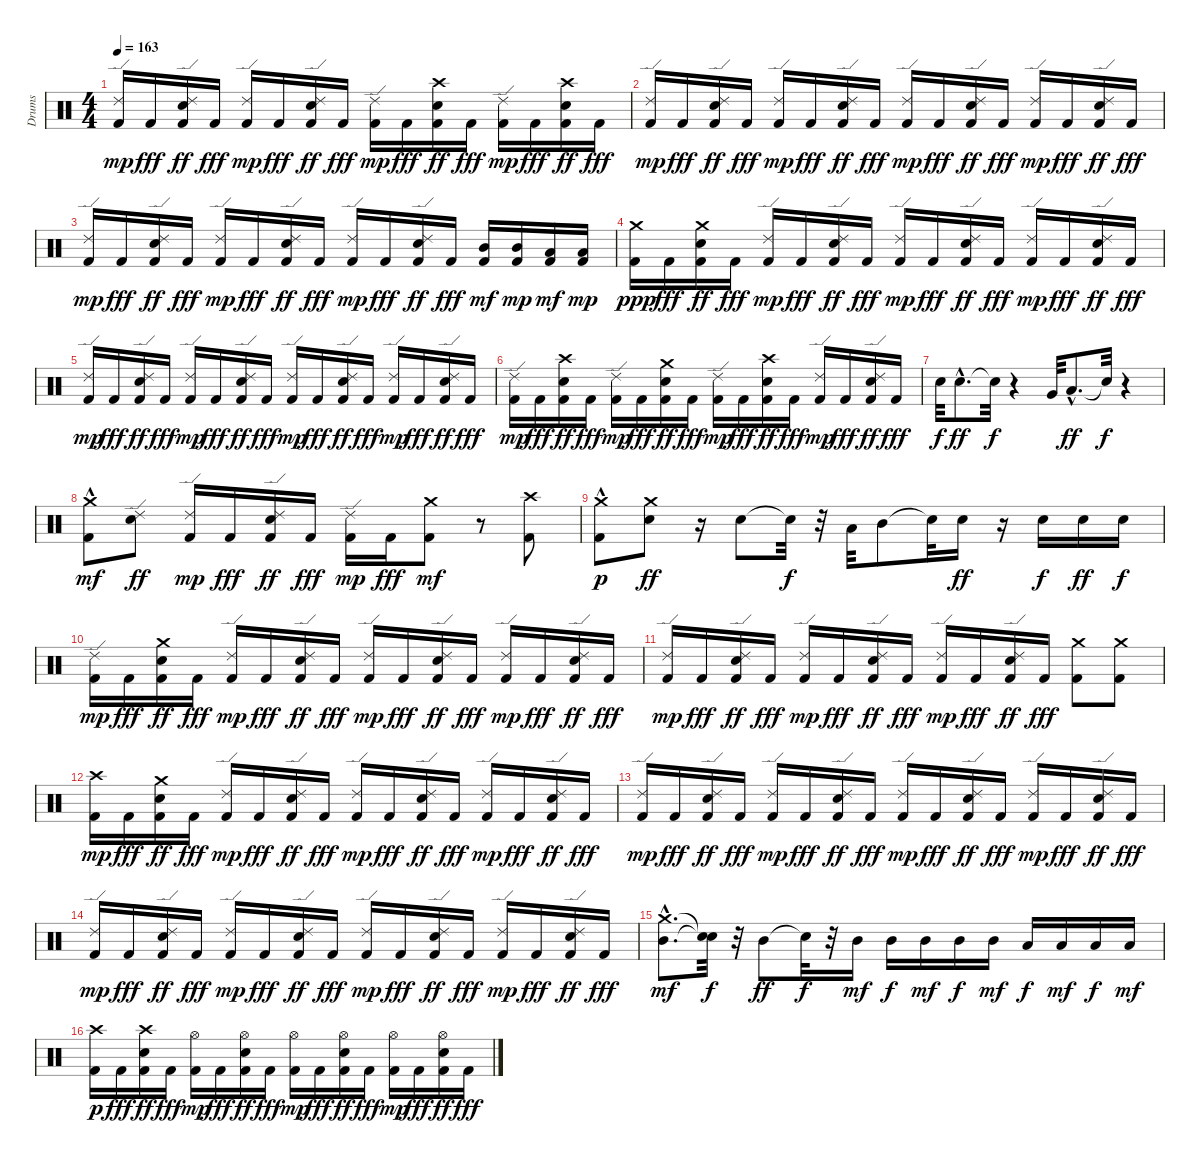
\track ("Drums" "Drums") {instrument percussion}
\staff {score}
\articulation defaults
\ts (4 4)
\tempo 163
\clef neutral
\ks c
("Kick (hit) 2" "Ride (edge) 2").16{dy mp} "Kick (hit) 2".16{dy fff} ("Kick (hit) 2" "Ride (edge) 2" "Snare (hit) 2").16{dy ff} "Kick (hit) 2".16{dy fff} ("Kick (hit) 2" "Ride (edge) 2").16{dy mp} "Kick (hit) 2".16{dy fff} ("Kick (hit) 2" "Ride (edge) 2" "Snare (hit) 2").16{dy ff} "Kick (hit) 2".16{dy fff} ("Kick (hit) 2" "Ride (edge) 2").16{dy mp} "Kick (hit) 2".16{dy fff} ("Kick (hit) 2" "Crash high (hit)" "Snare (hit) 2").16{dy ff} "Kick (hit) 2".16{dy fff} ("Kick (hit) 2" "Ride (edge) 2").16{dy mp} "Kick (hit) 2".16{dy fff} ("Kick (hit) 2" "Crash high (hit)" "Snare (hit) 2").16{dy ff} "Kick (hit) 2".16{dy fff} |
("Kick (hit) 2" "Ride (edge) 2").16{dy mp} "Kick (hit) 2".16{dy fff} ("Kick (hit) 2" "Ride (edge) 2" "Snare (hit) 2").16{dy ff} "Kick (hit) 2".16{dy fff} ("Kick (hit) 2" "Ride (edge) 2").16{dy mp} "Kick (hit) 2".16{dy fff} ("Kick (hit) 2" "Ride (edge) 2" "Snare (hit) 2").16{dy ff} "Kick (hit) 2".16{dy fff} ("Kick (hit) 2" "Ride (edge) 2").16{dy mp} "Kick (hit) 2".16{dy fff} ("Kick (hit) 2" "Ride (edge) 2" "Snare (hit) 2").16{dy ff} "Kick (hit) 2".16{dy fff} ("Kick (hit) 2" "Ride (edge) 2").16{dy mp} "Kick (hit) 2".16{dy fff} ("Kick (hit) 2" "Ride (edge) 2" "Snare (hit) 2").16{dy ff} "Kick (hit) 2".16{dy fff} |
("Kick (hit) 2" "Ride (edge) 2").16{dy mp} "Kick (hit) 2".16{dy fff} ("Kick (hit) 2" "Ride (edge) 2" "Snare (hit) 2").16{dy ff} "Kick (hit) 2".16{dy fff} ("Kick (hit) 2" "Ride (edge) 2").16{dy mp} "Kick (hit) 2".16{dy fff} ("Kick (hit) 2" "Ride (edge) 2" "Snare (hit) 2").16{dy ff} "Kick (hit) 2".16{dy fff} ("Kick (hit) 2" "Ride (edge) 2").16{dy mp} "Kick (hit) 2".16{dy fff} ("Kick (hit) 2" "Ride (edge) 2" "Snare (hit) 2").16{dy ff} "Kick (hit) 2".16{dy fff} ("Kick (hit) 2" "Mid Tom (hit)").16{dy mf} ("Kick (hit) 2" "Mid Tom (hit)").16{dy mp} ("Kick (hit) 2" "Low Tom (hit)").16{dy mf} ("Kick (hit) 2" "Low Tom (hit)").16{dy mp} |
("Kick (hit) 2" "Crash medium (hit)").16{dy ppp} "Kick (hit) 2".16{dy fff} ("Kick (hit) 2" "Crash medium (hit)" "Snare (hit) 2").16{dy ff} "Kick (hit) 2".16{dy fff} ("Kick (hit) 2" "Ride (edge) 2").16{dy mp} "Kick (hit) 2".16{dy fff} ("Kick (hit) 2" "Ride (edge) 2" "Snare (hit) 2").16{dy ff} "Kick (hit) 2".16{dy fff} ("Kick (hit) 2" "Ride (edge) 2").16{dy mp} "Kick (hit) 2".16{dy fff} ("Kick (hit) 2" "Ride (edge) 2" "Snare (hit) 2").16{dy ff} "Kick (hit) 2".16{dy fff} ("Kick (hit) 2" "Ride (edge) 2").16{dy mp} "Kick (hit) 2".16{dy fff} ("Kick (hit) 2" "Ride (edge) 2" "Snare (hit) 2").16{dy ff} "Kick (hit) 2".16{dy fff} |
("Kick (hit) 2" "Ride (edge) 2").16{dy mp} "Kick (hit) 2".16{dy fff} ("Kick (hit) 2" "Ride (edge) 2" "Snare (hit) 2").16{dy ff} "Kick (hit) 2".16{dy fff} ("Kick (hit) 2" "Ride (edge) 2").16{dy mp} "Kick (hit) 2".16{dy fff} ("Kick (hit) 2" "Ride (edge) 2" "Snare (hit) 2").16{dy ff} "Kick (hit) 2".16{dy fff} ("Kick (hit) 2" "Ride (edge) 2").16{dy mp} "Kick (hit) 2".16{dy fff} ("Kick (hit) 2" "Ride (edge) 2" "Snare (hit) 2").16{dy ff} "Kick (hit) 2".16{dy fff} ("Kick (hit) 2" "Ride (edge) 2").16{dy mp} "Kick (hit) 2".16{dy fff} ("Kick (hit) 2" "Ride (edge) 2" "Snare (hit) 2").16{dy ff} "Kick (hit) 2".16{dy fff} |
("Kick (hit) 2" "Ride (edge) 2").16{dy mp} "Kick (hit) 2".16{dy fff} ("Kick (hit) 2" "Crash high (hit)" "Snare (hit) 2").16{dy ff} "Kick (hit) 2".16{dy fff} ("Kick (hit) 2" "Ride (edge) 2").16{dy mp} "Kick (hit) 2".16{dy fff} ("Kick (hit) 2" "Crash medium (hit)" "Snare (hit) 2").16{dy ff} "Kick (hit) 2".16{dy fff} ("Kick (hit) 2" "Ride (edge) 2").16{dy mp} "Kick (hit) 2".16{dy fff} ("Kick (hit) 2" "Crash high (hit)" "Snare (hit) 2").16{dy ff} "Kick (hit) 2".16{dy fff} ("Kick (hit) 2" "Ride (edge) 2").16{dy mp} "Kick (hit) 2".16{dy fff} ("Kick (hit) 2" "Ride (edge) 2" "Snare (hit) 2").16{dy ff} "Kick (hit) 2".16{dy fff} |
"Snare (hit) 2".32{dy f} "Snare (hit) 2"{hac}.8{d dy ff} "Snare (hit)"{t}.32{dy f} r.4 "Very Low Tom (hit)".32 "Low Tom (hit)"{hac}.8{d dy ff} "Snare (hit)"{t}.32{dy f} r.4 |
("Kick (hit) 2"{hac} "Crash medium (hit)").8{dy mf} ("Ride (edge) 2" "Snare (hit) 2").8{dy ff} ("Kick (hit) 2" "Ride (edge) 2").16{dy mp} "Kick (hit) 2".16{dy fff} ("Kick (hit) 2" "Ride (edge) 2" "Snare (hit) 2").16{dy ff} "Kick (hit) 2".16{dy fff} ("Kick (hit) 2" "Ride (edge) 2").16{dy mp} "Kick (hit) 2".16{dy fff} ("Kick (hit) 2" "Crash medium (hit)").8{dy mf} r.8 ("Kick (hit) 2" "Crash high (hit)").8 |
("Kick (hit) 2"{hac} "Crash medium (hit)").8{dy p} ("Crash medium (hit)" "Snare (hit) 2").8{dy ff} r.16 "Snare (hit) 2".8 "Snare (hit)"{t}.32{dy f} r.32 "Low Tom (hit)".32 "Mid Tom (hit)".8 "Snare (hit)"{t}.32 "Snare (hit) 2".16{dy ff} r.16 "Snare (hit) 2".16{dy f} "Snare (hit) 2".16{dy ff} "Snare (hit) 2".16{dy f} |
("Kick (hit) 2" "Ride (edge) 2").16{dy mp} "Kick (hit) 2".16{dy fff} ("Kick (hit) 2" "Crash medium (hit)" "Snare (hit) 2").16{dy ff} "Kick (hit) 2".16{dy fff} ("Kick (hit) 2" "Ride (edge) 2").16{dy mp} "Kick (hit) 2".16{dy fff} ("Kick (hit) 2" "Ride (edge) 2" "Snare (hit) 2").16{dy ff} "Kick (hit) 2".16{dy fff} ("Kick (hit) 2" "Ride (edge) 2").16{dy mp} "Kick (hit) 2".16{dy fff} ("Kick (hit) 2" "Ride (edge) 2" "Snare (hit) 2").16{dy ff} "Kick (hit) 2".16{dy fff} ("Kick (hit) 2" "Ride (edge) 2").16{dy mp} "Kick (hit) 2".16{dy fff} ("Kick (hit) 2" "Ride (edge) 2" "Snare (hit) 2").16{dy ff} "Kick (hit) 2".16{dy fff} |
("Kick (hit) 2" "Ride (edge) 2").16{dy mp} "Kick (hit) 2".16{dy fff} ("Kick (hit) 2" "Ride (edge) 2" "Snare (hit) 2").16{dy ff} "Kick (hit) 2".16{dy fff} ("Kick (hit) 2" "Ride (edge) 2").16{dy mp} "Kick (hit) 2".16{dy fff} ("Kick (hit) 2" "Ride (edge) 2" "Snare (hit) 2").16{dy ff} "Kick (hit) 2".16{dy fff} ("Kick (hit) 2" "Ride (edge) 2").16{dy mp} "Kick (hit) 2".16{dy fff} ("Kick (hit) 2" "Ride (edge) 2" "Snare (hit) 2").16{dy ff} "Kick (hit) 2".16{dy fff} ("Crash medium (hit)" "Kick (hit) 2").8 ("Crash medium (hit)" "Kick (hit) 2").8 |
("Kick (hit) 2" "Crash high (hit)").16{dy mp} "Kick (hit) 2".16{dy fff} ("Kick (hit) 2" "Crash medium (hit)" "Snare (hit) 2").16{dy ff} "Kick (hit) 2".16{dy fff} ("Kick (hit) 2" "Ride (edge) 2").16{dy mp} "Kick (hit) 2".16{dy fff} ("Kick (hit) 2" "Ride (edge) 2" "Snare (hit) 2").16{dy ff} "Kick (hit) 2".16{dy fff} ("Kick (hit) 2" "Ride (edge) 2").16{dy mp} "Kick (hit) 2".16{dy fff} ("Kick (hit) 2" "Ride (edge) 2" "Snare (hit) 2").16{dy ff} "Kick (hit) 2".16{dy fff} ("Kick (hit) 2" "Ride (edge) 2").16{dy mp} "Kick (hit) 2".16{dy fff} ("Kick (hit) 2" "Ride (edge) 2" "Snare (hit) 2").16{dy ff} "Kick (hit) 2".16{dy fff} |
("Kick (hit) 2" "Ride (edge) 2").16{dy mp} "Kick (hit) 2".16{dy fff} ("Kick (hit) 2" "Ride (edge) 2" "Snare (hit) 2").16{dy ff} "Kick (hit) 2".16{dy fff} ("Kick (hit) 2" "Ride (edge) 2").16{dy mp} "Kick (hit) 2".16{dy fff} ("Kick (hit) 2" "Ride (edge) 2" "Snare (hit) 2").16{dy ff} "Kick (hit) 2".16{dy fff} ("Kick (hit) 2" "Ride (edge) 2").16{dy mp} "Kick (hit) 2".16{dy fff} ("Kick (hit) 2" "Ride (edge) 2" "Snare (hit) 2").16{dy ff} "Kick (hit) 2".16{dy fff} ("Kick (hit) 2" "Ride (edge) 2").16{dy mp} "Kick (hit) 2".16{dy fff} ("Kick (hit) 2" "Ride (edge) 2" "Snare (hit) 2").16{dy ff} "Kick (hit) 2".16{dy fff} |
("Kick (hit) 2" "Ride (edge) 2").16{dy mp} "Kick (hit) 2".16{dy fff} ("Kick (hit) 2" "Ride (edge) 2" "Snare (hit) 2").16{dy ff} "Kick (hit) 2".16{dy fff} ("Kick (hit) 2" "Ride (edge) 2").16{dy mp} "Kick (hit) 2".16{dy fff} ("Kick (hit) 2" "Ride (edge) 2" "Snare (hit) 2").16{dy ff} "Kick (hit) 2".16{dy fff} ("Kick (hit) 2" "Ride (edge) 2").16{dy mp} "Kick (hit) 2".16{dy fff} ("Kick (hit) 2" "Ride (edge) 2" "Snare (hit) 2").16{dy ff} "Kick (hit) 2".16{dy fff} ("Kick (hit) 2" "Ride (edge) 2").16{dy mp} "Kick (hit) 2".16{dy fff} ("Kick (hit) 2" "Ride (edge) 2" "Snare (hit) 2").16{dy ff} "Kick (hit) 2".16{dy fff} |
("Mid Tom (hit)"{hac} "Crash medium (hit)"{hac}).8{d dy mf} ("Snare (hit)"{t} "Snare (hit)"{t}).32{dy f} r.32 "Mid Tom (hit)".8{dy ff} "Snare (hit)"{t}.32{dy f} r.32 "Mid Tom (hit)".16{dy mf} "Mid Tom (hit)".16{dy f} "Mid Tom (hit)".16{dy mf} "Mid Tom (hit)".16{dy f} "Mid Tom (hit)".16{dy mf} "Low Tom (hit)".16{dy f} "Low Tom (hit)".16{dy mf} "Low Tom (hit)".16{dy f} "Low Tom (hit)".16{dy mf} |
("Kick (hit) 2" "Crash high (hit)").16{dy p} "Kick (hit) 2".16{dy fff} ("Kick (hit) 2" "Crash high (hit)" "Snare (hit) 2").16{dy ff} "Kick (hit) 2".16{dy fff} ("Kick (hit) 2" "Hi-Hat (open)").16{dy mp} "Kick (hit) 2".16{dy fff} ("Kick (hit) 2" "Hi-Hat (open)" "Snare (hit) 2").16{dy ff} "Kick (hit) 2".16{dy fff} ("Kick (hit) 2" "Hi-Hat (open)").16{dy mp} "Kick (hit) 2".16{dy fff} ("Kick (hit) 2" "Hi-Hat (open)" "Snare (hit) 2").16{dy ff} "Kick (hit) 2".16{dy fff} ("Kick (hit) 2" "Hi-Hat (open)").16{dy mp} "Kick (hit) 2".16{dy fff} ("Kick (hit) 2" "Hi-Hat (open)" "Snare (hit) 2").16{dy ff} "Kick (hit) 2".16{dy fff}
